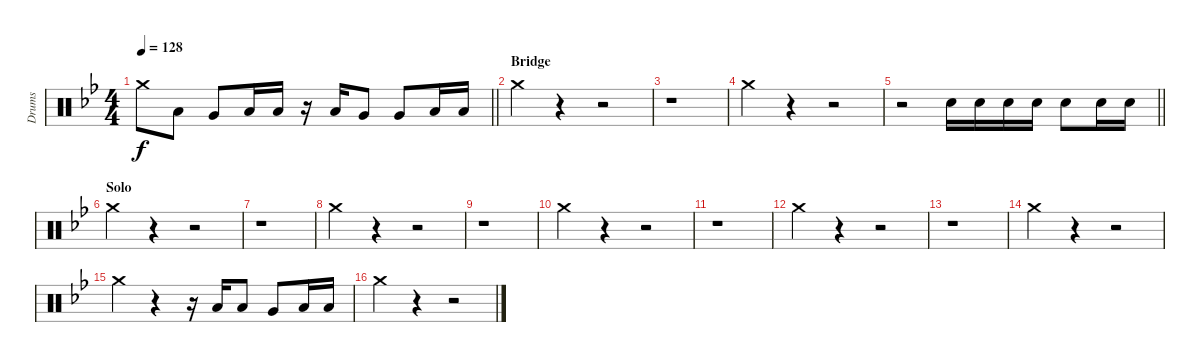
\track ("Drums" "Drums") {instrument percussion}
\staff {score}
\articulation defaults
\ts (4 4)
\tempo 128
\clef neutral
\barLineRight lightlight
\ks gminor "Crash medium (hit)".8{dy f} "Low Tom (hit)".8 "Very Low Tom (hit)".8 "Low Tom (hit)".16 "Low Tom (hit)".16
r.16 "Low Tom (hit)".16 "Very Low Tom (hit)".8 "Very Low Tom (hit)".8 "Low Floor Tom (hit)".16 "Low Floor Tom (hit)".16 |
\section ("" "Bridge")
"Crash medium (hit)".4 r.4 r.2 |
r.1 |
"Crash medium (hit)".4 r.4 r.2 |
\barLineRight lightlight
r.2 "Electric Snare (hit)".16 "Electric Snare (hit)".16 "Electric Snare (hit)".16 "Electric Snare (hit)".16 "Electric Snare (hit)".8 "Electric Snare (hit)".16 "Electric Snare (hit)".16 |
\section ("" "Solo")
"Crash medium (hit)".4 r.4 r.2 |
r.1 |
"Crash medium (hit)".4 r.4 r.2 |
r.1 |
"Crash medium (hit)".4 r.4 r.2 |
r.1 |
"Crash medium (hit)".4 r.4 r.2 |
r.1 |
"Crash medium (hit)".4 r.4 r.2 |
"Crash medium (hit)".4 r.4 r.16 "Low Tom (hit)".16 "Low Tom (hit)".8 "Very Low Tom (hit)".8 "Low Floor Tom (hit)".16 "Low Floor Tom (hit)".16 |
"Crash medium (hit)".4 r.4 r.2
